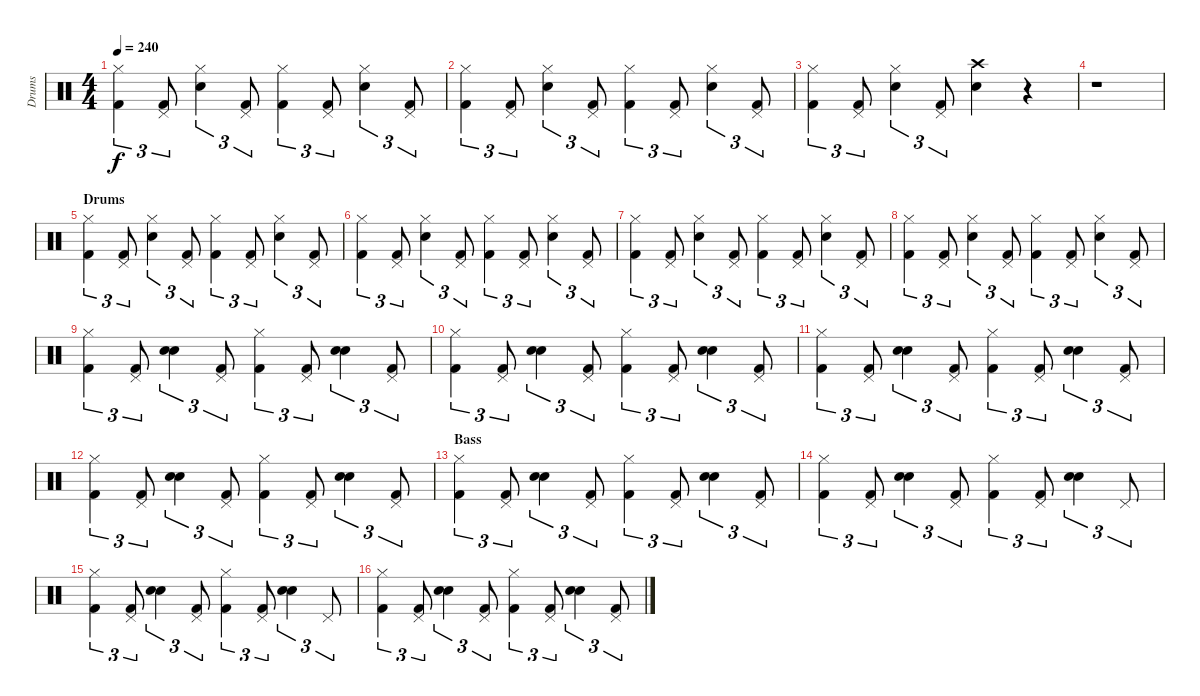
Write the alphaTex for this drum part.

\track ("Drums" "Drums") {instrument percussion}
\staff {score}
\articulation defaults
\ts (4 4)
\tempo 240
\clef neutral
\ks c
("Hi-Hat (closed)" "Kick (hit) 2").4{tu (3 2) dy f} ("Pedal Hi-Hat (hit)" "Kick (hit) 2").8{tu (3 2)} ("Hi-Hat (closed)" "Snare (hit) 2").4{tu (3 2)} ("Pedal Hi-Hat (hit)" "Kick (hit) 2").8{tu (3 2)} ("Hi-Hat (closed)" "Kick (hit) 2").4{tu (3 2)} ("Pedal Hi-Hat (hit)" "Kick (hit) 2").8{tu (3 2)} ("Hi-Hat (closed)" "Snare (hit) 2").4{tu (3 2)} ("Pedal Hi-Hat (hit)" "Kick (hit) 2").8{tu (3 2)} |
("Hi-Hat (closed)" "Kick (hit) 2").4{tu (3 2)} ("Pedal Hi-Hat (hit)" "Kick (hit) 2").8{tu (3 2)} ("Hi-Hat (closed)" "Snare (hit) 2").4{tu (3 2)} ("Pedal Hi-Hat (hit)" "Kick (hit) 2").8{tu (3 2)} ("Hi-Hat (closed)" "Kick (hit) 2").4{tu (3 2)} ("Pedal Hi-Hat (hit)" "Kick (hit) 2").8{tu (3 2)} ("Hi-Hat (closed)" "Snare (hit) 2").4{tu (3 2)} ("Pedal Hi-Hat (hit)" "Kick (hit) 2").8{tu (3 2)} |
("Hi-Hat (closed)" "Kick (hit) 2").4{tu (3 2)} ("Pedal Hi-Hat (hit)" "Kick (hit) 2").8{tu (3 2)} ("Hi-Hat (closed)" "Snare (hit) 2").4{tu (3 2)} ("Pedal Hi-Hat (hit)" "Kick (hit) 2").8{tu (3 2)} ("Crash high (hit)" "Snare (hit) 2").4 r.4 |
r.1 |
\section ("" "Drums")
("Hi-Hat (closed)" "Kick (hit) 2").4{tu (3 2)} ("Pedal Hi-Hat (hit)" "Kick (hit) 2").8{tu (3 2)} ("Hi-Hat (closed)" "Snare (hit) 2").4{tu (3 2)} ("Pedal Hi-Hat (hit)" "Kick (hit) 2").8{tu (3 2)} ("Hi-Hat (closed)" "Kick (hit) 2").4{tu (3 2)} ("Pedal Hi-Hat (hit)" "Kick (hit) 2").8{tu (3 2)} ("Hi-Hat (closed)" "Snare (hit) 2").4{tu (3 2)} ("Pedal Hi-Hat (hit)" "Kick (hit) 2").8{tu (3 2)} |
("Hi-Hat (closed)" "Kick (hit) 2").4{tu (3 2)} ("Pedal Hi-Hat (hit)" "Kick (hit) 2").8{tu (3 2)} ("Hi-Hat (closed)" "Snare (hit) 2").4{tu (3 2)} ("Pedal Hi-Hat (hit)" "Kick (hit) 2").8{tu (3 2)} ("Hi-Hat (closed)" "Kick (hit) 2").4{tu (3 2)} ("Pedal Hi-Hat (hit)" "Kick (hit) 2").8{tu (3 2)} ("Hi-Hat (closed)" "Snare (hit) 2").4{tu (3 2)} ("Pedal Hi-Hat (hit)" "Kick (hit) 2").8{tu (3 2)} |
("Hi-Hat (closed)" "Kick (hit) 2").4{tu (3 2)} ("Pedal Hi-Hat (hit)" "Kick (hit) 2").8{tu (3 2)} ("Hi-Hat (closed)" "Snare (hit) 2").4{tu (3 2)} ("Pedal Hi-Hat (hit)" "Kick (hit) 2").8{tu (3 2)} ("Hi-Hat (closed)" "Kick (hit) 2").4{tu (3 2)} ("Pedal Hi-Hat (hit)" "Kick (hit) 2").8{tu (3 2)} ("Hi-Hat (closed)" "Snare (hit) 2").4{tu (3 2)} ("Pedal Hi-Hat (hit)" "Kick (hit) 2").8{tu (3 2)} |
("Hi-Hat (closed)" "Kick (hit) 2").4{tu (3 2)} ("Pedal Hi-Hat (hit)" "Kick (hit) 2").8{tu (3 2)} ("Hi-Hat (closed)" "Snare (hit) 2").4{tu (3 2)} ("Pedal Hi-Hat (hit)" "Kick (hit) 2").8{tu (3 2)} ("Hi-Hat (closed)" "Kick (hit) 2").4{tu (3 2)} ("Pedal Hi-Hat (hit)" "Kick (hit) 2").8{tu (3 2)} ("Hi-Hat (closed)" "Snare (hit) 2").4{tu (3 2)} ("Pedal Hi-Hat (hit)" "Kick (hit) 2").8{tu (3 2)} |
("Hi-Hat (closed)" "Kick (hit) 2").4{tu (3 2)} ("Pedal Hi-Hat (hit)" "Kick (hit) 2").8{tu (3 2)} ("Hand Clap (hit)" "Snare (hit) 2").4{tu (3 2)} ("Pedal Hi-Hat (hit)" "Kick (hit) 2").8{tu (3 2)} ("Hi-Hat (closed)" "Kick (hit) 2").4{tu (3 2)} ("Pedal Hi-Hat (hit)" "Kick (hit) 2").8{tu (3 2)} ("Hand Clap (hit)" "Snare (hit) 2").4{tu (3 2)} ("Pedal Hi-Hat (hit)" "Kick (hit) 2").8{tu (3 2)} |
("Hi-Hat (closed)" "Kick (hit) 2").4{tu (3 2)} ("Pedal Hi-Hat (hit)" "Kick (hit) 2").8{tu (3 2)} ("Hand Clap (hit)" "Snare (hit) 2").4{tu (3 2)} ("Pedal Hi-Hat (hit)" "Kick (hit) 2").8{tu (3 2)} ("Hi-Hat (closed)" "Kick (hit) 2").4{tu (3 2)} ("Pedal Hi-Hat (hit)" "Kick (hit) 2").8{tu (3 2)} ("Hand Clap (hit)" "Snare (hit) 2").4{tu (3 2)} ("Pedal Hi-Hat (hit)" "Kick (hit) 2").8{tu (3 2)} |
("Hi-Hat (closed)" "Kick (hit) 2").4{tu (3 2)} ("Pedal Hi-Hat (hit)" "Kick (hit) 2").8{tu (3 2)} ("Hand Clap (hit)" "Snare (hit) 2").4{tu (3 2)} ("Pedal Hi-Hat (hit)" "Kick (hit) 2").8{tu (3 2)} ("Hi-Hat (closed)" "Kick (hit) 2").4{tu (3 2)} ("Pedal Hi-Hat (hit)" "Kick (hit) 2").8{tu (3 2)} ("Hand Clap (hit)" "Snare (hit) 2").4{tu (3 2)} ("Pedal Hi-Hat (hit)" "Kick (hit) 2").8{tu (3 2)} |
("Hi-Hat (closed)" "Kick (hit) 2").4{tu (3 2)} ("Pedal Hi-Hat (hit)" "Kick (hit) 2").8{tu (3 2)} ("Hand Clap (hit)" "Snare (hit) 2").4{tu (3 2)} ("Pedal Hi-Hat (hit)" "Kick (hit) 2").8{tu (3 2)} ("Hi-Hat (closed)" "Kick (hit) 2").4{tu (3 2)} ("Pedal Hi-Hat (hit)" "Kick (hit) 2").8{tu (3 2)} ("Hand Clap (hit)" "Snare (hit) 2").4{tu (3 2)} ("Pedal Hi-Hat (hit)" "Kick (hit) 2").8{tu (3 2)} |
\section ("" "Bass")
("Hi-Hat (closed)" "Kick (hit) 2").4{tu (3 2)} ("Pedal Hi-Hat (hit)" "Kick (hit) 2").8{tu (3 2)} ("Hand Clap (hit)" "Snare (hit) 2").4{tu (3 2)} ("Pedal Hi-Hat (hit)" "Kick (hit) 2").8{tu (3 2)} ("Hi-Hat (closed)" "Kick (hit) 2").4{tu (3 2)} ("Pedal Hi-Hat (hit)" "Kick (hit) 2").8{tu (3 2)} ("Hand Clap (hit)" "Snare (hit) 2").4{tu (3 2)} ("Pedal Hi-Hat (hit)" "Kick (hit) 2").8{tu (3 2)} |
("Hi-Hat (closed)" "Kick (hit) 2").4{tu (3 2)} ("Pedal Hi-Hat (hit)" "Kick (hit) 2").8{tu (3 2)} ("Hand Clap (hit)" "Snare (hit) 2").4{tu (3 2)} ("Pedal Hi-Hat (hit)" "Kick (hit) 2").8{tu (3 2)} ("Hi-Hat (closed)" "Kick (hit) 2").4{tu (3 2)} ("Pedal Hi-Hat (hit)" "Kick (hit) 2").8{tu (3 2)} ("Hand Clap (hit)" "Snare (hit) 2").4{tu (3 2)} "Pedal Hi-Hat (hit)".8{tu (3 2)} |
("Hi-Hat (closed)" "Kick (hit) 2").4{tu (3 2)} ("Pedal Hi-Hat (hit)" "Kick (hit) 2").8{tu (3 2)} ("Hand Clap (hit)" "Snare (hit) 2").4{tu (3 2)} ("Pedal Hi-Hat (hit)" "Kick (hit) 2").8{tu (3 2)} ("Hi-Hat (closed)" "Kick (hit) 2").4{tu (3 2)} ("Pedal Hi-Hat (hit)" "Kick (hit) 2").8{tu (3 2)} ("Hand Clap (hit)" "Snare (hit) 2").4{tu (3 2)} "Pedal Hi-Hat (hit)".8{tu (3 2)} |
("Hi-Hat (closed)" "Kick (hit) 2").4{tu (3 2)} ("Pedal Hi-Hat (hit)" "Kick (hit) 2").8{tu (3 2)} ("Hand Clap (hit)" "Snare (hit) 2").4{tu (3 2)} ("Pedal Hi-Hat (hit)" "Kick (hit) 2").8{tu (3 2)} ("Hi-Hat (closed)" "Kick (hit) 2").4{tu (3 2)} ("Pedal Hi-Hat (hit)" "Kick (hit) 2").8{tu (3 2)} ("Hand Clap (hit)" "Snare (hit) 2").4{tu (3 2)} ("Pedal Hi-Hat (hit)" "Kick (hit) 2").8{tu (3 2)}
